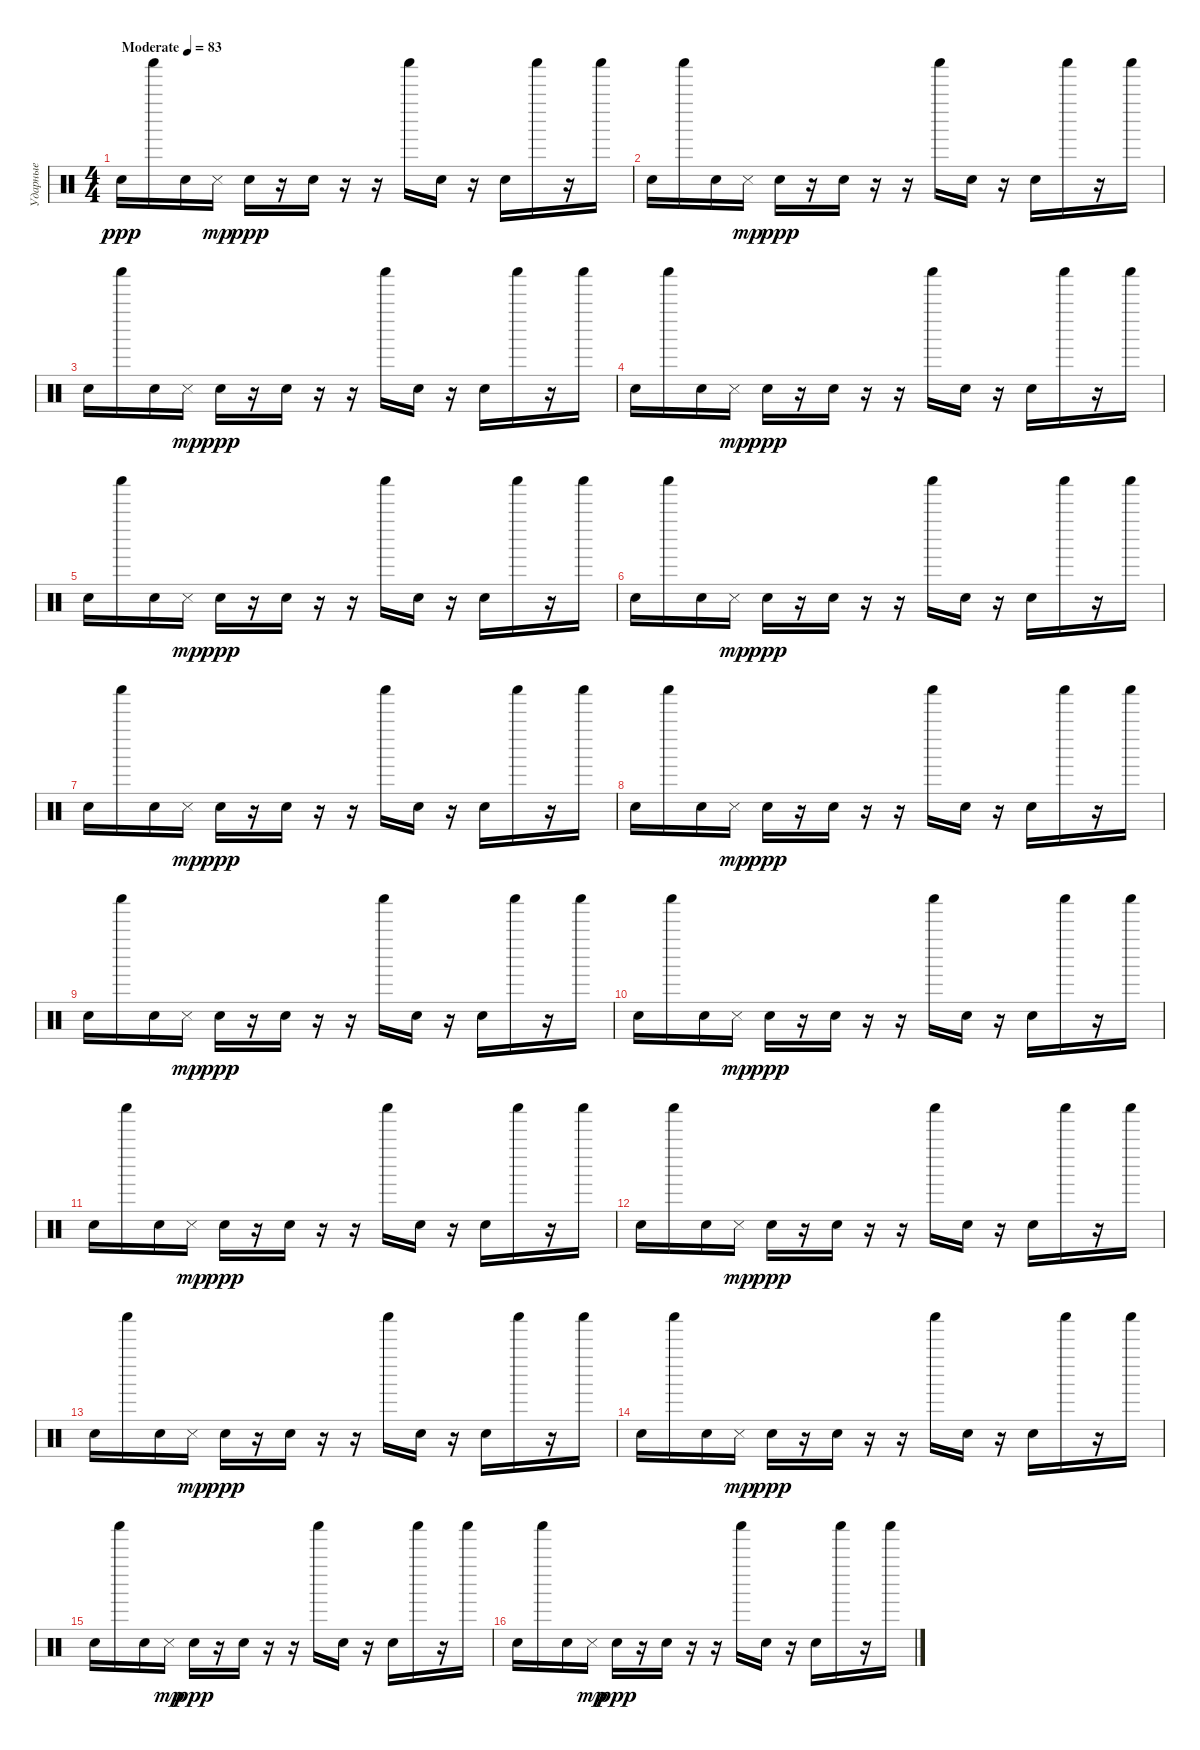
\track ("Ударные" "Ударные") {instrument percussion}
\staff {score}
\articulation defaults
\ts (4 4)
\tempo (83 "Moderate")
\clef neutral
\ks c "Snare (hit)".16{dy ppp} "Shaker (hit)".16 "Snare (hit)".16 "Snare (side stick) 3".16{dy mp} "Snare (hit)".16{dy ppp}
r.16 "Snare (hit)".16 r.16 r.16 "Shaker (hit)".16 "Snare (hit)".16 r.16 "Snare (hit)".16 "Shaker (hit)".16 r.16 "Shaker (hit)".16 |
"Snare (hit)".16 "Shaker (hit)".16 "Snare (hit)".16 "Snare (side stick) 3".16{dy mp} "Snare (hit)".16{dy ppp} r.16 "Snare (hit)".16 r.16 r.16 "Shaker (hit)".16 "Snare (hit)".16 r.16 "Snare (hit)".16 "Shaker (hit)".16 r.16 "Shaker (hit)".16 |
"Snare (hit)".16 "Shaker (hit)".16 "Snare (hit)".16 "Snare (side stick) 3".16{dy mp} "Snare (hit)".16{dy ppp} r.16 "Snare (hit)".16 r.16 r.16 "Shaker (hit)".16 "Snare (hit)".16 r.16 "Snare (hit)".16 "Shaker (hit)".16 r.16 "Shaker (hit)".16 |
"Snare (hit)".16 "Shaker (hit)".16 "Snare (hit)".16 "Snare (side stick) 3".16{dy mp} "Snare (hit)".16{dy ppp} r.16 "Snare (hit)".16 r.16 r.16 "Shaker (hit)".16 "Snare (hit)".16 r.16 "Snare (hit)".16 "Shaker (hit)".16 r.16 "Shaker (hit)".16 |
"Snare (hit)".16 "Shaker (hit)".16 "Snare (hit)".16 "Snare (side stick) 3".16{dy mp} "Snare (hit)".16{dy ppp} r.16 "Snare (hit)".16 r.16 r.16 "Shaker (hit)".16 "Snare (hit)".16 r.16 "Snare (hit)".16 "Shaker (hit)".16 r.16 "Shaker (hit)".16 |
"Snare (hit)".16 "Shaker (hit)".16 "Snare (hit)".16 "Snare (side stick) 3".16{dy mp} "Snare (hit)".16{dy ppp} r.16 "Snare (hit)".16 r.16 r.16 "Shaker (hit)".16 "Snare (hit)".16 r.16 "Snare (hit)".16 "Shaker (hit)".16 r.16 "Shaker (hit)".16 |
"Snare (hit)".16 "Shaker (hit)".16 "Snare (hit)".16 "Snare (side stick) 3".16{dy mp} "Snare (hit)".16{dy ppp} r.16 "Snare (hit)".16 r.16 r.16 "Shaker (hit)".16 "Snare (hit)".16 r.16 "Snare (hit)".16 "Shaker (hit)".16 r.16 "Shaker (hit)".16 |
"Snare (hit)".16 "Shaker (hit)".16 "Snare (hit)".16 "Snare (side stick) 3".16{dy mp} "Snare (hit)".16{dy ppp} r.16 "Snare (hit)".16 r.16 r.16 "Shaker (hit)".16 "Snare (hit)".16 r.16 "Snare (hit)".16 "Shaker (hit)".16 r.16 "Shaker (hit)".16 |
"Snare (hit)".16 "Shaker (hit)".16 "Snare (hit)".16 "Snare (side stick) 3".16{dy mp} "Snare (hit)".16{dy ppp} r.16 "Snare (hit)".16 r.16 r.16 "Shaker (hit)".16 "Snare (hit)".16 r.16 "Snare (hit)".16 "Shaker (hit)".16 r.16 "Shaker (hit)".16 |
"Snare (hit)".16 "Shaker (hit)".16 "Snare (hit)".16 "Snare (side stick) 3".16{dy mp} "Snare (hit)".16{dy ppp} r.16 "Snare (hit)".16 r.16 r.16 "Shaker (hit)".16 "Snare (hit)".16 r.16 "Snare (hit)".16 "Shaker (hit)".16 r.16 "Shaker (hit)".16 |
"Snare (hit)".16 "Shaker (hit)".16 "Snare (hit)".16 "Snare (side stick) 3".16{dy mp} "Snare (hit)".16{dy ppp} r.16 "Snare (hit)".16 r.16 r.16 "Shaker (hit)".16 "Snare (hit)".16 r.16 "Snare (hit)".16 "Shaker (hit)".16 r.16 "Shaker (hit)".16 |
"Snare (hit)".16 "Shaker (hit)".16 "Snare (hit)".16 "Snare (side stick) 3".16{dy mp} "Snare (hit)".16{dy ppp} r.16 "Snare (hit)".16 r.16 r.16 "Shaker (hit)".16 "Snare (hit)".16 r.16 "Snare (hit)".16 "Shaker (hit)".16 r.16 "Shaker (hit)".16 |
"Snare (hit)".16 "Shaker (hit)".16 "Snare (hit)".16 "Snare (side stick) 3".16{dy mp} "Snare (hit)".16{dy ppp} r.16 "Snare (hit)".16 r.16 r.16 "Shaker (hit)".16 "Snare (hit)".16 r.16 "Snare (hit)".16 "Shaker (hit)".16 r.16 "Shaker (hit)".16 |
"Snare (hit)".16 "Shaker (hit)".16 "Snare (hit)".16 "Snare (side stick) 3".16{dy mp} "Snare (hit)".16{dy ppp} r.16 "Snare (hit)".16 r.16 r.16 "Shaker (hit)".16 "Snare (hit)".16 r.16 "Snare (hit)".16 "Shaker (hit)".16 r.16 "Shaker (hit)".16 |
"Snare (hit)".16 "Shaker (hit)".16 "Snare (hit)".16 "Snare (side stick) 3".16{dy mp} "Snare (hit)".16{dy ppp} r.16 "Snare (hit)".16 r.16 r.16 "Shaker (hit)".16 "Snare (hit)".16 r.16 "Snare (hit)".16 "Shaker (hit)".16 r.16 "Shaker (hit)".16 |
"Snare (hit)".16 "Shaker (hit)".16 "Snare (hit)".16 "Snare (side stick) 3".16{dy mp} "Snare (hit)".16{dy ppp} r.16 "Snare (hit)".16 r.16 r.16 "Shaker (hit)".16 "Snare (hit)".16 r.16 "Snare (hit)".16 "Shaker (hit)".16 r.16 "Shaker (hit)".16
